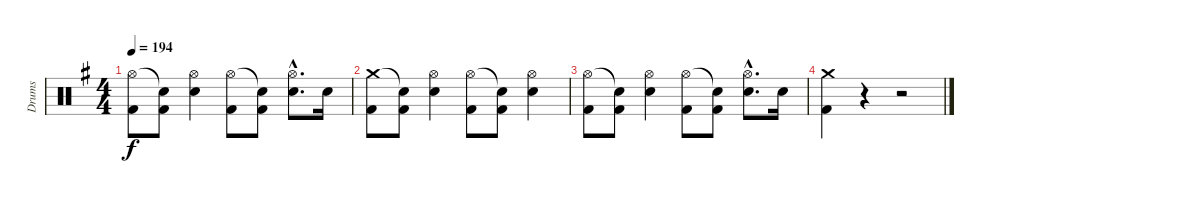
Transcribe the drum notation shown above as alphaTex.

\track ("Drums" "Drums") {instrument percussion}
\staff {score}
\articulation defaults
\ts (4 4)
\tempo 194
\clef neutral
\ks eminor
("Hi-Hat (open)" "Kick (hit) 2").8{dy f} ("Snare (hit)"{t} "Kick (hit) 2").8 ("Hi-Hat (open)" "Electric Snare (hit)").4 ("Hi-Hat (open)" "Kick (hit) 2").8 ("Snare (hit)"{t} "Kick (hit) 2").8 ("Hi-Hat (open)"{hac} "Electric Snare (hit)"{hac}).8{d} "Electric Snare (hit)".16 |
("Crash medium (hit)" "Kick (hit) 2").8 ("Snare (hit)"{t} "Kick (hit) 2").8 ("Hi-Hat (open)" "Electric Snare (hit)").4 ("Hi-Hat (open)" "Kick (hit) 2").8 ("Snare (hit)"{t} "Kick (hit) 2").8 ("Hi-Hat (open)" "Electric Snare (hit)").4 |
("Hi-Hat (open)" "Kick (hit) 2").8 ("Snare (hit)"{t} "Kick (hit) 2").8 ("Hi-Hat (open)" "Electric Snare (hit)").4 ("Hi-Hat (open)" "Kick (hit) 2").8 ("Snare (hit)"{t} "Kick (hit) 2").8 ("Hi-Hat (open)"{hac} "Electric Snare (hit)"{hac}).8{d} "Electric Snare (hit)".16 |
("Crash medium (hit)" "Kick (hit) 2").4 r.4 r.2
